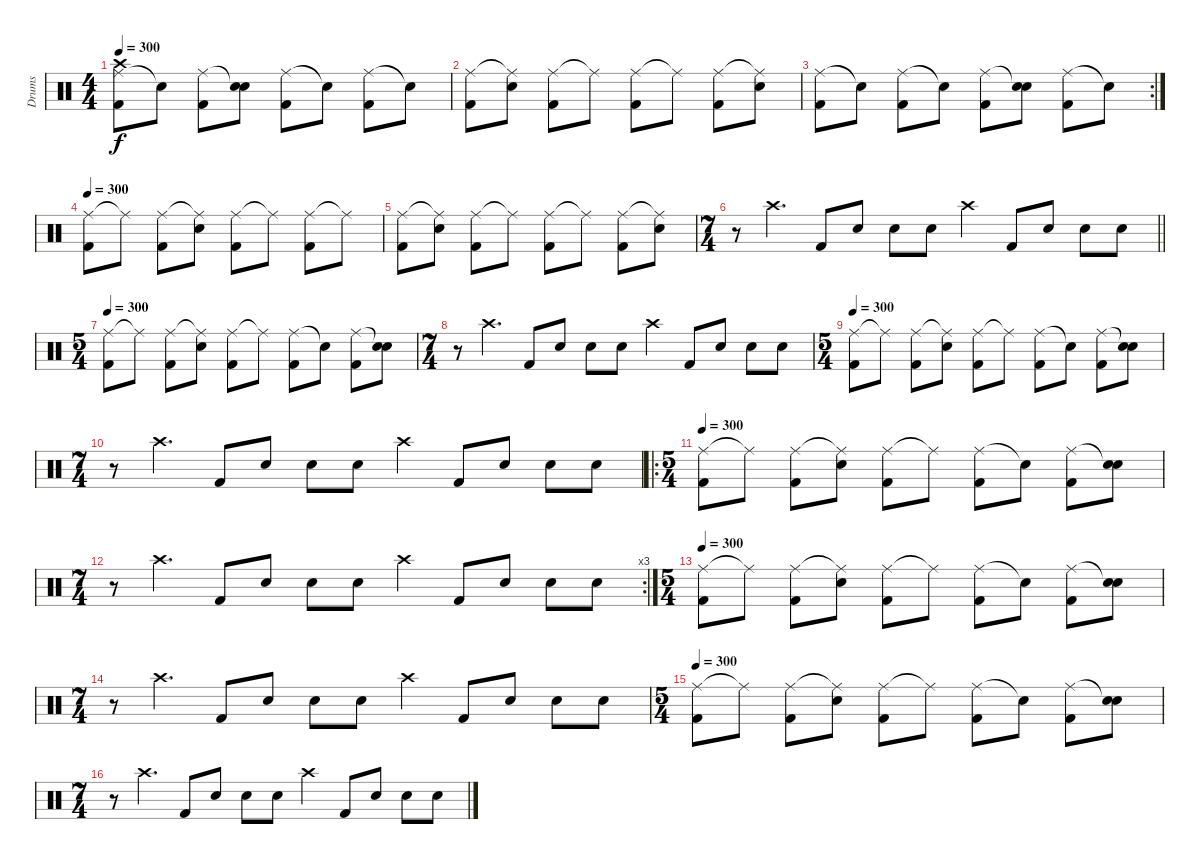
\track ("Drums" "Drums") {instrument percussion}
\staff {score}
\articulation defaults
\ts (4 4)
\tempo 300
\clef neutral
\ks c
("Ride (middle)" "Kick (hit) 2" "Crash high (hit)").8{dy f} "Snare (hit)"{t}.8 ("Ride (middle)" "Kick (hit) 2").8 ("Snare (hit)"{t} "Snare (hit) 2").8 ("Ride (middle)" "Kick (hit) 2").8 "Snare (hit)"{t}.8 ("Ride (middle)" "Kick (hit) 2").8 "Snare (hit)"{t}.8 |
("Ride (middle)" "Kick (hit) 2").8 ("Ride (middle)"{t} "Snare (hit) 2").8 ("Ride (middle)" "Kick (hit) 2").8 "Ride (middle)"{t}.8 ("Ride (middle)" "Kick (hit) 2").8 "Ride (middle)"{t}.8 ("Ride (middle)" "Kick (hit) 2").8 ("Ride (middle)"{t} "Snare (hit) 2").8 |
\rc 2
("Ride (middle)" "Kick (hit) 2").8 "Snare (hit)"{t}.8 ("Ride (middle)" "Kick (hit) 2").8 "Snare (hit)"{t}.8 ("Ride (middle)" "Kick (hit) 2").8 ("Snare (hit)"{t} "Snare (hit) 2").8 ("Ride (middle)" "Kick (hit) 2").8 "Snare (hit)"{t}.8 |
\tempo 300
("Ride (middle)" "Kick (hit) 2").8 "Ride (middle)"{t}.8 ("Ride (middle)" "Kick (hit) 2").8 ("Ride (middle)"{t} "Snare (hit) 2").8 ("Ride (middle)" "Kick (hit) 2").8 "Ride (middle)"{t}.8 ("Ride (middle)" "Kick (hit) 2").8 "Ride (middle)"{t}.8 |
("Ride (middle)" "Kick (hit) 2").8 ("Ride (middle)"{t} "Snare (hit) 2").8 ("Ride (middle)" "Kick (hit) 2").8 "Ride (middle)"{t}.8 ("Ride (middle)" "Kick (hit) 2").8 "Ride (middle)"{t}.8 ("Ride (middle)" "Kick (hit) 2").8 ("Ride (middle)"{t} "Snare (hit) 2").8 |
\ts (7 4)
\barLineRight lightlight
r.8 "Crash high (hit)".4{d} "Kick (hit) 2".8 "Snare (hit) 2".8 "Snare (hit) 2".8 "Snare (hit) 2".8 "Crash high (hit)".4 "Kick (hit) 2".8 "Snare (hit) 2".8 "Snare (hit) 2".8 "Snare (hit) 2".8 |
\ts (5 4)
\tempo 300
("Ride (middle)" "Kick (hit) 2").8 "Ride (middle)"{t}.8 ("Ride (middle)" "Kick (hit) 2").8 ("Ride (middle)"{t} "Snare (hit) 2").8 ("Ride (middle)" "Kick (hit) 2").8 "Ride (middle)"{t}.8 ("Ride (middle)" "Kick (hit) 2").8 "Snare (hit)"{t}.8 ("Ride (middle)" "Kick (hit) 2").8 ("Snare (hit)"{t} "Snare (hit) 2").8 |
\ts (7 4)
r.8 "Crash high (hit)".4{d} "Kick (hit) 2".8 "Snare (hit) 2".8 "Snare (hit) 2".8 "Snare (hit) 2".8 "Crash high (hit)".4 "Kick (hit) 2".8 "Snare (hit) 2".8 "Snare (hit) 2".8 "Snare (hit) 2".8 |
\ts (5 4)
\tempo 300
("Ride (middle)" "Kick (hit) 2").8 "Ride (middle)"{t}.8 ("Ride (middle)" "Kick (hit) 2").8 ("Ride (middle)"{t} "Snare (hit) 2").8 ("Ride (middle)" "Kick (hit) 2").8 "Ride (middle)"{t}.8 ("Ride (middle)" "Kick (hit) 2").8 "Snare (hit)"{t}.8 ("Ride (middle)" "Kick (hit) 2").8 ("Snare (hit)"{t} "Snare (hit) 2").8 |
\ts (7 4)
r.8 "Crash high (hit)".4{d} "Kick (hit) 2".8 "Snare (hit) 2".8 "Snare (hit) 2".8 "Snare (hit) 2".8 "Crash high (hit)".4 "Kick (hit) 2".8 "Snare (hit) 2".8 "Snare (hit) 2".8 "Snare (hit) 2".8 |
\ro
\ts (5 4)
\tempo 300
("Ride (middle)" "Kick (hit) 2").8 "Ride (middle)"{t}.8 ("Ride (middle)" "Kick (hit) 2").8 ("Ride (middle)"{t} "Snare (hit) 2").8 ("Ride (middle)" "Kick (hit) 2").8 "Ride (middle)"{t}.8 ("Ride (middle)" "Kick (hit) 2").8 "Snare (hit)"{t}.8 ("Ride (middle)" "Kick (hit) 2").8 ("Snare (hit)"{t} "Snare (hit) 2").8 |
\rc 3
\ts (7 4)
r.8 "Crash high (hit)".4{d} "Kick (hit) 2".8 "Snare (hit) 2".8 "Snare (hit) 2".8 "Snare (hit) 2".8 "Crash high (hit)".4 "Kick (hit) 2".8 "Snare (hit) 2".8 "Snare (hit) 2".8 "Snare (hit) 2".8 |
\ts (5 4)
\tempo 300
("Ride (middle)" "Kick (hit) 2").8 "Ride (middle)"{t}.8 ("Ride (middle)" "Kick (hit) 2").8 ("Ride (middle)"{t} "Snare (hit) 2").8 ("Ride (middle)" "Kick (hit) 2").8 "Ride (middle)"{t}.8 ("Ride (middle)" "Kick (hit) 2").8 "Snare (hit)"{t}.8 ("Ride (middle)" "Kick (hit) 2").8 ("Snare (hit)"{t} "Snare (hit) 2").8 |
\ts (7 4)
r.8 "Crash high (hit)".4{d} "Kick (hit) 2".8 "Snare (hit) 2".8 "Snare (hit) 2".8 "Snare (hit) 2".8 "Crash high (hit)".4 "Kick (hit) 2".8 "Snare (hit) 2".8 "Snare (hit) 2".8 "Snare (hit) 2".8 |
\ts (5 4)
\tempo 300
("Ride (middle)" "Kick (hit) 2").8 "Ride (middle)"{t}.8 ("Ride (middle)" "Kick (hit) 2").8 ("Ride (middle)"{t} "Snare (hit) 2").8 ("Ride (middle)" "Kick (hit) 2").8 "Ride (middle)"{t}.8 ("Ride (middle)" "Kick (hit) 2").8 "Snare (hit)"{t}.8 ("Ride (middle)" "Kick (hit) 2").8 ("Snare (hit)"{t} "Snare (hit) 2").8 |
\ts (7 4)
r.8 "Crash high (hit)".4{d} "Kick (hit) 2".8 "Snare (hit) 2".8 "Snare (hit) 2".8 "Snare (hit) 2".8 "Crash high (hit)".4 "Kick (hit) 2".8 "Snare (hit) 2".8 "Snare (hit) 2".8 "Snare (hit) 2".8
